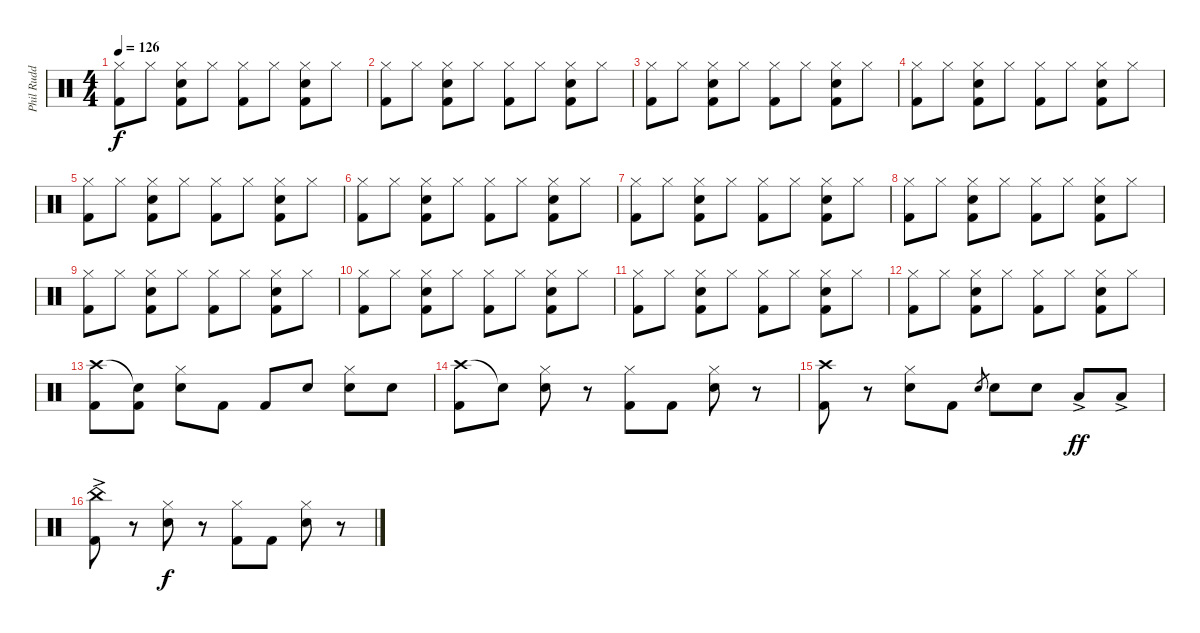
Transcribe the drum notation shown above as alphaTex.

\track ("Phil Rudd" "Phil Rudd") {instrument percussion}
\staff {score}
\articulation defaults
\ts (4 4)
\tempo 126
\clef neutral
\ks c
("Hi-Hat (closed)" "Kick (hit) 2").8{dy f} "Hi-Hat (closed)".8 ("Hi-Hat (closed)" "Snare (hit) 2" "Kick (hit) 2").8 "Hi-Hat (closed)".8 ("Hi-Hat (closed)" "Kick (hit) 2").8 "Hi-Hat (closed)".8 ("Hi-Hat (closed)" "Snare (hit) 2" "Kick (hit) 2").8 "Hi-Hat (closed)".8 |
("Hi-Hat (closed)" "Kick (hit) 2").8 "Hi-Hat (closed)".8 ("Hi-Hat (closed)" "Snare (hit) 2" "Kick (hit) 2").8 "Hi-Hat (closed)".8 ("Hi-Hat (closed)" "Kick (hit) 2").8 "Hi-Hat (closed)".8 ("Hi-Hat (closed)" "Snare (hit) 2" "Kick (hit) 2").8 "Hi-Hat (closed)".8 |
("Hi-Hat (closed)" "Kick (hit) 2").8 "Hi-Hat (closed)".8 ("Hi-Hat (closed)" "Snare (hit) 2" "Kick (hit) 2").8 "Hi-Hat (closed)".8 ("Hi-Hat (closed)" "Kick (hit) 2").8 "Hi-Hat (closed)".8 ("Hi-Hat (closed)" "Snare (hit) 2" "Kick (hit) 2").8 "Hi-Hat (closed)".8 |
("Hi-Hat (closed)" "Kick (hit) 2").8 "Hi-Hat (closed)".8 ("Hi-Hat (closed)" "Snare (hit) 2" "Kick (hit) 2").8 "Hi-Hat (closed)".8 ("Hi-Hat (closed)" "Kick (hit) 2").8 "Hi-Hat (closed)".8 ("Hi-Hat (closed)" "Snare (hit) 2" "Kick (hit) 2").8 "Hi-Hat (closed)".8 |
("Hi-Hat (closed)" "Kick (hit) 2").8 "Hi-Hat (closed)".8 ("Hi-Hat (closed)" "Snare (hit) 2" "Kick (hit) 2").8 "Hi-Hat (closed)".8 ("Hi-Hat (closed)" "Kick (hit) 2").8 "Hi-Hat (closed)".8 ("Hi-Hat (closed)" "Snare (hit) 2" "Kick (hit) 2").8 "Hi-Hat (closed)".8 |
("Hi-Hat (closed)" "Kick (hit) 2").8 "Hi-Hat (closed)".8 ("Hi-Hat (closed)" "Snare (hit) 2" "Kick (hit) 2").8 "Hi-Hat (closed)".8 ("Hi-Hat (closed)" "Kick (hit) 2").8 "Hi-Hat (closed)".8 ("Hi-Hat (closed)" "Snare (hit) 2" "Kick (hit) 2").8 "Hi-Hat (closed)".8 |
("Hi-Hat (closed)" "Kick (hit) 2").8 "Hi-Hat (closed)".8 ("Hi-Hat (closed)" "Snare (hit) 2" "Kick (hit) 2").8 "Hi-Hat (closed)".8 ("Hi-Hat (closed)" "Kick (hit) 2").8 "Hi-Hat (closed)".8 ("Hi-Hat (closed)" "Snare (hit) 2" "Kick (hit) 2").8 "Hi-Hat (closed)".8 |
("Hi-Hat (closed)" "Kick (hit) 2").8 "Hi-Hat (closed)".8 ("Hi-Hat (closed)" "Snare (hit) 2" "Kick (hit) 2").8 "Hi-Hat (closed)".8 ("Hi-Hat (closed)" "Kick (hit) 2").8 "Hi-Hat (closed)".8 ("Hi-Hat (closed)" "Snare (hit) 2" "Kick (hit) 2").8 "Hi-Hat (closed)".8 |
("Hi-Hat (closed)" "Kick (hit) 2").8 "Hi-Hat (closed)".8 ("Hi-Hat (closed)" "Snare (hit) 2" "Kick (hit) 2").8 "Hi-Hat (closed)".8 ("Hi-Hat (closed)" "Kick (hit) 2").8 "Hi-Hat (closed)".8 ("Hi-Hat (closed)" "Snare (hit) 2" "Kick (hit) 2").8 "Hi-Hat (closed)".8 |
("Hi-Hat (closed)" "Kick (hit) 2").8 "Hi-Hat (closed)".8 ("Hi-Hat (closed)" "Snare (hit) 2" "Kick (hit) 2").8 "Hi-Hat (closed)".8 ("Hi-Hat (closed)" "Kick (hit) 2").8 "Hi-Hat (closed)".8 ("Hi-Hat (closed)" "Snare (hit) 2" "Kick (hit) 2").8 "Hi-Hat (closed)".8 |
("Hi-Hat (closed)" "Kick (hit) 2").8 "Hi-Hat (closed)".8 ("Hi-Hat (closed)" "Snare (hit) 2" "Kick (hit) 2").8 "Hi-Hat (closed)".8 ("Hi-Hat (closed)" "Kick (hit) 2").8 "Hi-Hat (closed)".8 ("Hi-Hat (closed)" "Snare (hit) 2" "Kick (hit) 2").8 "Hi-Hat (closed)".8 |
("Hi-Hat (closed)" "Kick (hit) 2").8 "Hi-Hat (closed)".8 ("Hi-Hat (closed)" "Snare (hit) 2" "Kick (hit) 2").8 "Hi-Hat (closed)".8 ("Hi-Hat (closed)" "Kick (hit) 2").8 "Hi-Hat (closed)".8 ("Hi-Hat (closed)" "Snare (hit) 2" "Kick (hit) 2").8 "Hi-Hat (closed)".8 |
("Crash high (hit)" "Kick (hit) 2").8 ("Snare (hit)"{t} "Kick (hit) 2").8 ("Hi-Hat (closed)" "Snare (hit) 2").8 "Kick (hit) 2".8 "Kick (hit) 2".8 "Snare (hit) 2".8 ("Hi-Hat (closed)" "Snare (hit) 2").8 "Snare (hit) 2".8 |
("Crash high (hit)" "Kick (hit) 2").8 "Snare (hit)"{t}.8 ("Hi-Hat (closed)" "Snare (hit) 2").8 r.8 ("Hi-Hat (closed)" "Kick (hit) 2").8 "Kick (hit) 2".8 ("Hi-Hat (closed)" "Snare (hit) 2").8 r.8 |
("Crash high (hit)" "Kick (hit) 2").8 r.8 ("Hi-Hat (closed)" "Snare (hit) 2").8 "Kick (hit) 2".8 "Snare (hit) 2".8{gr} "Snare (hit) 2".8 "Snare (hit) 2".8 "Low Tom (hit)"{ac}.8{dy ff} "Low Tom (hit)"{ac}.8 |
("China (hit)"{ac} "Kick (hit) 2").8 r.8 ("Hi-Hat (closed)" "Snare (hit) 2").8{dy f} r.8 ("Hi-Hat (closed)" "Kick (hit) 2").8 "Kick (hit) 2".8 ("Hi-Hat (closed)" "Snare (hit) 2").8 r.8
